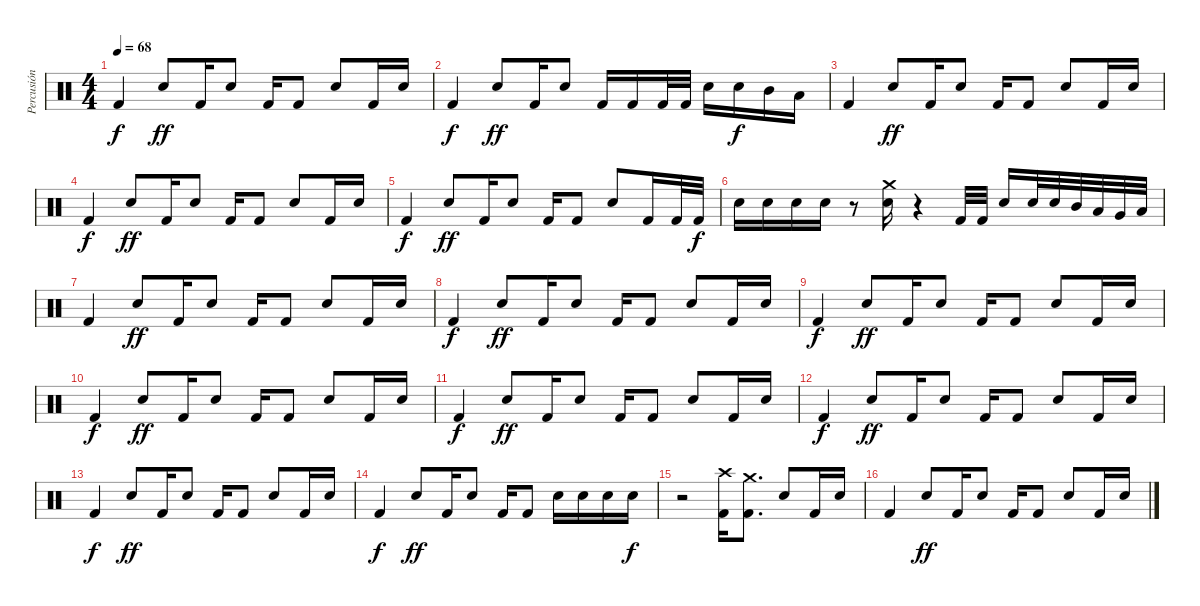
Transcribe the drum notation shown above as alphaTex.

\track ("Percusión" "Percusión") {instrument percussion}
\staff {score}
\articulation defaults
\ts (4 4)
\tempo 68
\clef neutral
\ks c "Kick (hit) 2".4{dy f} "Snare (hit) 2".8{dy ff} "Kick (hit) 2".16 "Snare (hit) 2".8 "Kick (hit) 2".16 "Kick (hit) 2".8 "Snare (hit) 2".8 "Kick (hit) 2".16 "Snare (hit) 2".16
|
"Kick (hit) 2".4{dy f} "Snare (hit) 2".8{dy ff} "Kick (hit) 2".16 "Snare (hit) 2".8 "Kick (hit) 2".16 "Kick (hit) 2".16 "Kick (hit) 2".32 "Kick (hit) 2".32 "Snare (hit) 2".16 "Snare (hit) 2".16{dy f} "Mid Tom (hit)".16 "Low Tom (hit)".16 |
"Kick (hit) 2".4 "Snare (hit) 2".8{dy ff} "Kick (hit) 2".16 "Snare (hit) 2".8 "Kick (hit) 2".16 "Kick (hit) 2".8 "Snare (hit) 2".8 "Kick (hit) 2".16 "Snare (hit) 2".16 |
"Kick (hit) 2".4{dy f} "Snare (hit) 2".8{dy ff} "Kick (hit) 2".16 "Snare (hit) 2".8 "Kick (hit) 2".16 "Kick (hit) 2".8 "Snare (hit) 2".8 "Kick (hit) 2".16 "Snare (hit) 2".16 |
"Kick (hit) 2".4{dy f} "Snare (hit) 2".8{dy ff} "Kick (hit) 2".16 "Snare (hit) 2".8 "Kick (hit) 2".16 "Kick (hit) 2".8 "Snare (hit) 2".8 "Kick (hit) 2".16 "Kick (hit) 2".32 "Kick (hit) 2".32{dy f} |
"Snare (hit) 2".16 "Snare (hit) 2".16 "Snare (hit) 2".16 "Snare (hit) 2".16 r.8 ("Crash medium (hit)" "Snare (hit) 2").16 r.4 "Kick (hit) 2".32 "Kick (hit) 2".32 "Snare (hit) 2".16 "Snare (hit) 2".32 "Snare (hit) 2".32 "Mid Tom (hit)".32 "Low Tom (hit)".32 "Very Low Tom (hit)".32 "Low Floor Tom (hit)".32 |
"Kick (hit) 2".4 "Snare (hit) 2".8{dy ff} "Kick (hit) 2".16 "Snare (hit) 2".8 "Kick (hit) 2".16 "Kick (hit) 2".8 "Snare (hit) 2".8 "Kick (hit) 2".16 "Snare (hit) 2".16 |
"Kick (hit) 2".4{dy f} "Snare (hit) 2".8{dy ff} "Kick (hit) 2".16 "Snare (hit) 2".8 "Kick (hit) 2".16 "Kick (hit) 2".8 "Snare (hit) 2".8 "Kick (hit) 2".16 "Snare (hit) 2".16 |
"Kick (hit) 2".4{dy f} "Snare (hit) 2".8{dy ff} "Kick (hit) 2".16 "Snare (hit) 2".8 "Kick (hit) 2".16 "Kick (hit) 2".8 "Snare (hit) 2".8 "Kick (hit) 2".16 "Snare (hit) 2".16 |
"Kick (hit) 2".4{dy f} "Snare (hit) 2".8{dy ff} "Kick (hit) 2".16 "Snare (hit) 2".8 "Kick (hit) 2".16 "Kick (hit) 2".8 "Snare (hit) 2".8 "Kick (hit) 2".16 "Snare (hit) 2".16 |
"Kick (hit) 2".4{dy f} "Snare (hit) 2".8{dy ff} "Kick (hit) 2".16 "Snare (hit) 2".8 "Kick (hit) 2".16 "Kick (hit) 2".8 "Snare (hit) 2".8 "Kick (hit) 2".16 "Snare (hit) 2".16 |
"Kick (hit) 2".4{dy f} "Snare (hit) 2".8{dy ff} "Kick (hit) 2".16 "Snare (hit) 2".8 "Kick (hit) 2".16 "Kick (hit) 2".8 "Snare (hit) 2".8 "Kick (hit) 2".16 "Snare (hit) 2".16 |
"Kick (hit) 2".4{dy f} "Snare (hit) 2".8{dy ff} "Kick (hit) 2".16 "Snare (hit) 2".8 "Kick (hit) 2".16 "Kick (hit) 2".8 "Snare (hit) 2".8 "Kick (hit) 2".16 "Snare (hit) 2".16 |
"Kick (hit) 2".4{dy f} "Snare (hit) 2".8{dy ff} "Kick (hit) 2".16 "Snare (hit) 2".8 "Kick (hit) 2".16 "Kick (hit) 2".8 "Snare (hit) 2".16 "Snare (hit) 2".16 "Snare (hit) 2".16 "Snare (hit) 2".16{dy f} |
r.2 ("Crash high (hit)" "Kick (hit) 2").16 ("Crash medium (hit)" "Kick (hit) 2").8{d} "Snare (hit) 2".8 "Kick (hit) 2".16 "Snare (hit) 2".16 |
"Kick (hit) 2".4 "Snare (hit) 2".8{dy ff} "Kick (hit) 2".16 "Snare (hit) 2".8 "Kick (hit) 2".16 "Kick (hit) 2".8 "Snare (hit) 2".8 "Kick (hit) 2".16 "Snare (hit) 2".16
